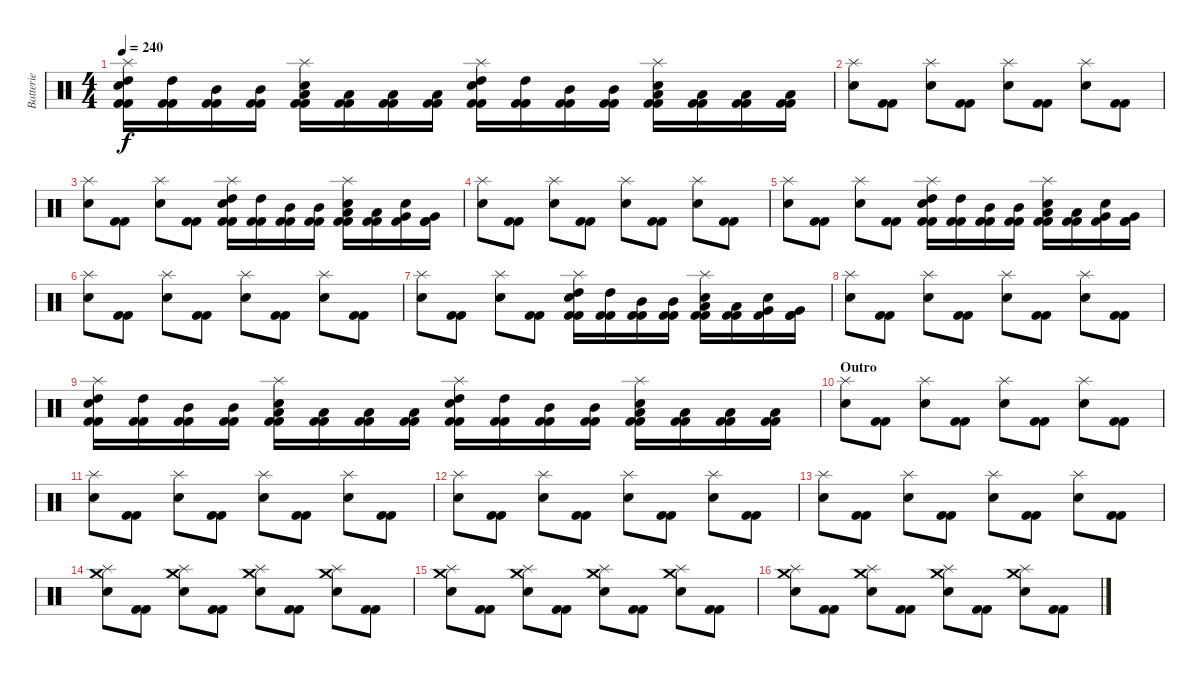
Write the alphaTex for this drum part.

\track ("Batterie" "Batterie") {instrument percussion}
\staff {score}
\articulation defaults
\ts (4 4)
\tempo 240
\clef neutral
\ks c
("Splash (hit)" "Snare (hit) 2" "High Tom (hit)" "Kick (hit) 2" "Kick (hit) 2").16{dy f} ("High Tom (hit)" "Kick (hit) 2" "Kick (hit) 2").16 ("Mid Tom (hit)" "Kick (hit) 2" "Kick (hit) 2").16 ("Mid Tom (hit)" "Kick (hit) 2" "Kick (hit) 2").16 ("Splash (hit)" "Snare (hit) 2" "Low Tom (hit)" "Kick (hit) 2" "Kick (hit) 2").16 ("Low Tom (hit)" "Kick (hit) 2" "Kick (hit) 2").16 ("Low Tom (hit)" "Kick (hit) 2" "Kick (hit) 2").16 ("Low Tom (hit)" "Kick (hit) 2" "Kick (hit) 2").16 ("Splash (hit)" "Snare (hit) 2" "High Tom (hit)" "Kick (hit) 2" "Kick (hit) 2").16 ("High Tom (hit)" "Kick (hit) 2" "Kick (hit) 2").16 ("Mid Tom (hit)" "Kick (hit) 2" "Kick (hit) 2").16 ("Mid Tom (hit)" "Kick (hit) 2" "Kick (hit) 2").16 ("Splash (hit)" "Snare (hit) 2" "Low Tom (hit)" "Kick (hit) 2" "Kick (hit) 2").16 ("Low Tom (hit)" "Kick (hit) 2" "Kick (hit) 2").16 ("Low Tom (hit)" "Kick (hit) 2" "Kick (hit) 2").16 ("Low Tom (hit)" "Kick (hit) 2" "Kick (hit) 2").16 |
("Splash (hit)" "Snare (hit) 2").8 ("Kick (hit) 2" "Kick (hit) 2").8 ("Splash (hit)" "Snare (hit) 2").8 ("Kick (hit) 2" "Kick (hit) 2").8 ("Splash (hit)" "Snare (hit) 2").8 ("Kick (hit) 2" "Kick (hit) 2").8 ("Splash (hit)" "Snare (hit) 2").8 ("Kick (hit) 2" "Kick (hit) 2").8 |
("Splash (hit)" "Snare (hit) 2").8 ("Kick (hit) 2" "Kick (hit) 2").8 ("Splash (hit)" "Snare (hit) 2").8 ("Kick (hit) 2" "Kick (hit) 2").8 ("Splash (hit)" "Snare (hit) 2" "High Tom (hit)" "Kick (hit) 2" "Kick (hit) 2").16 ("High Tom (hit)" "Kick (hit) 2" "Kick (hit) 2").16 ("Mid Tom (hit)" "Kick (hit) 2" "Kick (hit) 2").16 ("Mid Tom (hit)" "Kick (hit) 2" "Kick (hit) 2").16 ("Splash (hit)" "Snare (hit) 2" "Low Tom (hit)" "Kick (hit) 2" "Kick (hit) 2").16 ("Low Tom (hit)" "Kick (hit) 2" "Kick (hit) 2").16 ("Very Low Tom (hit)" "Kick (hit) 2" "Snare (hit)").16 ("Very Low Tom (hit)" "Kick (hit) 2" "Kick (hit) 2").16 |
("Splash (hit)" "Snare (hit) 2").8 ("Kick (hit) 2" "Kick (hit) 2").8 ("Splash (hit)" "Snare (hit) 2").8 ("Kick (hit) 2" "Kick (hit) 2").8 ("Splash (hit)" "Snare (hit) 2").8 ("Kick (hit) 2" "Kick (hit) 2").8 ("Splash (hit)" "Snare (hit) 2").8 ("Kick (hit) 2" "Kick (hit) 2").8 |
("Splash (hit)" "Snare (hit) 2").8 ("Kick (hit) 2" "Kick (hit) 2").8 ("Splash (hit)" "Snare (hit) 2").8 ("Kick (hit) 2" "Kick (hit) 2").8 ("Splash (hit)" "Snare (hit) 2" "High Tom (hit)" "Kick (hit) 2" "Kick (hit) 2").16 ("High Tom (hit)" "Kick (hit) 2" "Kick (hit) 2").16 ("Mid Tom (hit)" "Kick (hit) 2" "Kick (hit) 2").16 ("Mid Tom (hit)" "Kick (hit) 2" "Kick (hit) 2").16 ("Splash (hit)" "Snare (hit) 2" "Low Tom (hit)" "Kick (hit) 2" "Kick (hit) 2").16 ("Low Tom (hit)" "Kick (hit) 2" "Kick (hit) 2").16 ("Very Low Tom (hit)" "Kick (hit) 2" "Snare (hit)").16 ("Very Low Tom (hit)" "Kick (hit) 2" "Kick (hit) 2").16 |
("Splash (hit)" "Snare (hit) 2").8 ("Kick (hit) 2" "Kick (hit) 2").8 ("Splash (hit)" "Snare (hit) 2").8 ("Kick (hit) 2" "Kick (hit) 2").8 ("Splash (hit)" "Snare (hit) 2").8 ("Kick (hit) 2" "Kick (hit) 2").8 ("Splash (hit)" "Snare (hit) 2").8 ("Kick (hit) 2" "Kick (hit) 2").8 |
("Splash (hit)" "Snare (hit) 2").8 ("Kick (hit) 2" "Kick (hit) 2").8 ("Splash (hit)" "Snare (hit) 2").8 ("Kick (hit) 2" "Kick (hit) 2").8 ("Splash (hit)" "Snare (hit) 2" "High Tom (hit)" "Kick (hit) 2" "Kick (hit) 2").16 ("High Tom (hit)" "Kick (hit) 2" "Kick (hit) 2").16 ("Mid Tom (hit)" "Kick (hit) 2" "Kick (hit) 2").16 ("Mid Tom (hit)" "Kick (hit) 2" "Kick (hit) 2").16 ("Splash (hit)" "Snare (hit) 2" "Low Tom (hit)" "Kick (hit) 2" "Kick (hit) 2").16 ("Low Tom (hit)" "Kick (hit) 2" "Kick (hit) 2").16 ("Very Low Tom (hit)" "Kick (hit) 2" "Snare (hit)").16 ("Very Low Tom (hit)" "Kick (hit) 2" "Kick (hit) 2").16 |
("Splash (hit)" "Snare (hit) 2").8 ("Kick (hit) 2" "Kick (hit) 2").8 ("Splash (hit)" "Snare (hit) 2").8 ("Kick (hit) 2" "Kick (hit) 2").8 ("Splash (hit)" "Snare (hit) 2").8 ("Kick (hit) 2" "Kick (hit) 2").8 ("Splash (hit)" "Snare (hit) 2").8 ("Kick (hit) 2" "Kick (hit) 2").8 |
("Splash (hit)" "Snare (hit) 2" "High Tom (hit)" "Kick (hit) 2" "Kick (hit) 2").16 ("High Tom (hit)" "Kick (hit) 2" "Kick (hit) 2").16 ("Mid Tom (hit)" "Kick (hit) 2" "Kick (hit) 2").16 ("Mid Tom (hit)" "Kick (hit) 2" "Kick (hit) 2").16 ("Splash (hit)" "Snare (hit) 2" "Low Tom (hit)" "Kick (hit) 2" "Kick (hit) 2").16 ("Low Tom (hit)" "Kick (hit) 2" "Kick (hit) 2").16 ("Low Tom (hit)" "Kick (hit) 2" "Kick (hit) 2").16 ("Low Tom (hit)" "Kick (hit) 2" "Kick (hit) 2").16 ("Splash (hit)" "Snare (hit) 2" "High Tom (hit)" "Kick (hit) 2" "Kick (hit) 2").16 ("High Tom (hit)" "Kick (hit) 2" "Kick (hit) 2").16 ("Mid Tom (hit)" "Kick (hit) 2" "Kick (hit) 2").16 ("Mid Tom (hit)" "Kick (hit) 2" "Kick (hit) 2").16 ("Splash (hit)" "Snare (hit) 2" "Low Tom (hit)" "Kick (hit) 2" "Kick (hit) 2").16 ("Low Tom (hit)" "Kick (hit) 2" "Kick (hit) 2").16 ("Low Tom (hit)" "Kick (hit) 2" "Kick (hit) 2").16 ("Low Tom (hit)" "Kick (hit) 2" "Kick (hit) 2").16 |
\section ("" "Outro")
("Splash (hit)" "Snare (hit) 2").8 ("Kick (hit) 2" "Kick (hit) 2").8 ("Splash (hit)" "Snare (hit) 2").8 ("Kick (hit) 2" "Kick (hit) 2").8 ("Splash (hit)" "Snare (hit) 2").8 ("Kick (hit) 2" "Kick (hit) 2").8 ("Splash (hit)" "Snare (hit) 2").8 ("Kick (hit) 2" "Kick (hit) 2").8 |
("Splash (hit)" "Snare (hit) 2").8 ("Kick (hit) 2" "Kick (hit) 2").8 ("Splash (hit)" "Snare (hit) 2").8 ("Kick (hit) 2" "Kick (hit) 2").8 ("Splash (hit)" "Snare (hit) 2").8 ("Kick (hit) 2" "Kick (hit) 2").8 ("Splash (hit)" "Snare (hit) 2").8 ("Kick (hit) 2" "Kick (hit) 2").8 |
("Splash (hit)" "Snare (hit) 2").8 ("Kick (hit) 2" "Kick (hit) 2").8 ("Splash (hit)" "Snare (hit) 2").8 ("Kick (hit) 2" "Kick (hit) 2").8 ("Splash (hit)" "Snare (hit) 2").8 ("Kick (hit) 2" "Kick (hit) 2").8 ("Splash (hit)" "Snare (hit) 2").8 ("Kick (hit) 2" "Kick (hit) 2").8 |
("Splash (hit)" "Snare (hit) 2").8 ("Kick (hit) 2" "Kick (hit) 2").8 ("Splash (hit)" "Snare (hit) 2").8 ("Kick (hit) 2" "Kick (hit) 2").8 ("Splash (hit)" "Snare (hit) 2").8 ("Kick (hit) 2" "Kick (hit) 2").8 ("Splash (hit)" "Snare (hit) 2").8 ("Kick (hit) 2" "Kick (hit) 2").8 |
("Splash (hit)" "Crash medium (hit)" "Snare (hit) 2").8 ("Kick (hit) 2" "Kick (hit) 2").8 ("Splash (hit)" "Crash medium (hit)" "Snare (hit) 2").8 ("Kick (hit) 2" "Kick (hit) 2").8 ("Splash (hit)" "Crash medium (hit)" "Snare (hit) 2").8 ("Kick (hit) 2" "Kick (hit) 2").8 ("Splash (hit)" "Crash medium (hit)" "Snare (hit) 2").8 ("Kick (hit) 2" "Kick (hit) 2").8 |
("Splash (hit)" "Crash medium (hit)" "Snare (hit) 2").8 ("Kick (hit) 2" "Kick (hit) 2").8 ("Splash (hit)" "Crash medium (hit)" "Snare (hit) 2").8 ("Kick (hit) 2" "Kick (hit) 2").8 ("Splash (hit)" "Crash medium (hit)" "Snare (hit) 2").8 ("Kick (hit) 2" "Kick (hit) 2").8 ("Splash (hit)" "Crash medium (hit)" "Snare (hit) 2").8 ("Kick (hit) 2" "Kick (hit) 2").8 |
("Splash (hit)" "Crash medium (hit)" "Snare (hit) 2").8 ("Kick (hit) 2" "Kick (hit) 2").8 ("Splash (hit)" "Crash medium (hit)" "Snare (hit) 2").8 ("Kick (hit) 2" "Kick (hit) 2").8 ("Splash (hit)" "Crash medium (hit)" "Snare (hit) 2").8 ("Kick (hit) 2" "Kick (hit) 2").8 ("Splash (hit)" "Crash medium (hit)" "Snare (hit) 2").8 ("Kick (hit) 2" "Kick (hit) 2").8
